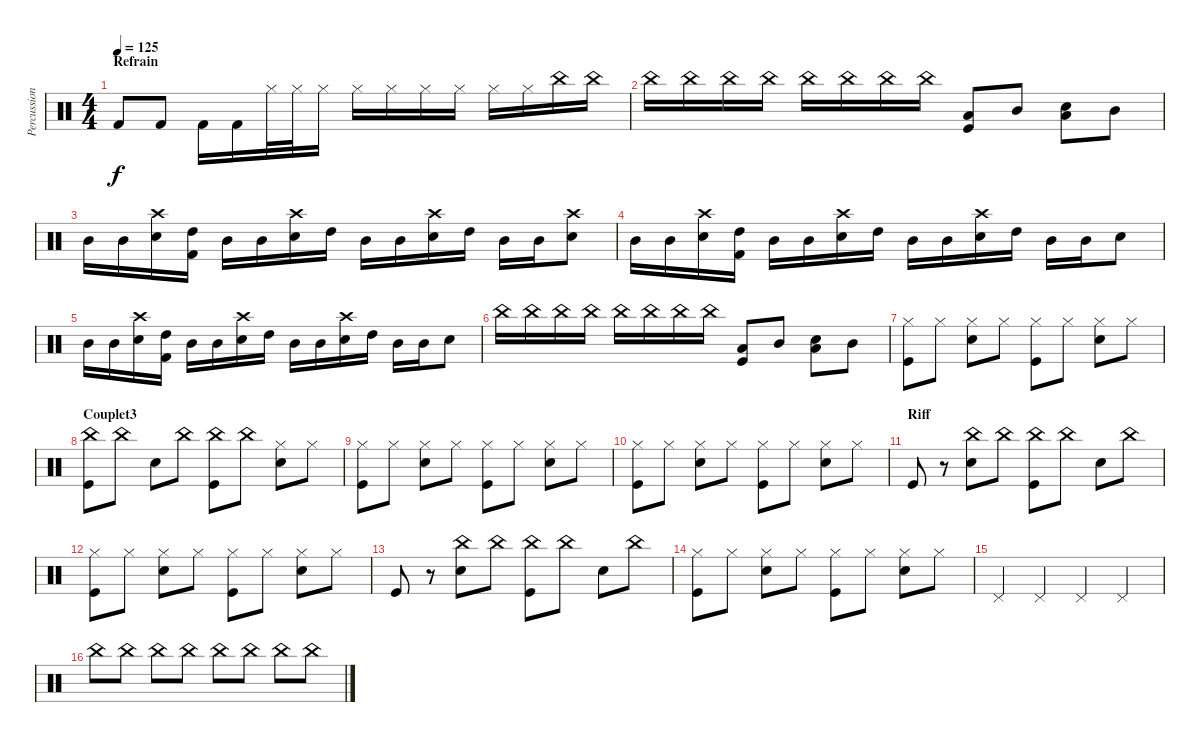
\track ("Percussions" "Percussion") {instrument percussion}
\staff {score}
\articulation defaults
\ts (4 4)
\section ("" "Refrain")
\tempo 125
\clef neutral
\ks c "Kick (hit) 2".8{dy f} "Kick (hit) 2".8 "Kick (hit) 2".16 "Kick (hit) 2".16 "Hi-Hat (closed)".32 "Hi-Hat (closed)".32 "Hi-Hat (closed)".16 "Hi-Hat (closed)".16 "Hi-Hat (closed)".16 "Hi-Hat (closed)".16 "Hi-Hat (closed)".16 "Hi-Hat (closed)".16 "Hi-Hat (closed)".16 "China (hit)".16 "China (hit)".16
|
"China (hit)".16 "China (hit)".16 "China (hit)".16 "China (hit)".16 "China (hit)".16 "China (hit)".16 "China (hit)".16 "China (hit)".16 ("Low Tom (hit)" "Kick (hit)").8 "Mid Tom (hit)".8 ("Low Tom (hit)" "Snare (hit) 2").8 "Mid Tom (hit)".8 |
"Mid Tom (hit)".16 "Mid Tom (hit)".16 ("Crash high (hit)" "Snare (hit) 2").16 ("High Tom (hit)" "Kick (hit) 2").16 "Mid Tom (hit)".16 "Mid Tom (hit)".16 ("Crash high (hit)" "Snare (hit) 2").16 "High Tom (hit)".16 "Mid Tom (hit)".16 "Mid Tom (hit)".16 ("Crash high (hit)" "Snare (hit) 2").16 "High Tom (hit)".16 "Mid Tom (hit)".16 "Mid Tom (hit)".16 ("Crash high (hit)" "Snare (hit) 2").8 |
"Mid Tom (hit)".16 "Mid Tom (hit)".16 ("Crash high (hit)" "Snare (hit) 2").16 ("High Tom (hit)" "Kick (hit) 2").16 "Mid Tom (hit)".16 "Mid Tom (hit)".16 ("Crash high (hit)" "Snare (hit) 2").16 "High Tom (hit)".16 "Mid Tom (hit)".16 "Mid Tom (hit)".16 ("Crash high (hit)" "Snare (hit) 2").16 "High Tom (hit)".16 "Mid Tom (hit)".16 "Mid Tom (hit)".16 "Snare (hit) 2".8 |
"Mid Tom (hit)".16 "Mid Tom (hit)".16 ("Crash high (hit)" "Snare (hit) 2").16 ("High Tom (hit)" "Kick (hit) 2").16 "Mid Tom (hit)".16 "Mid Tom (hit)".16 ("Crash high (hit)" "Snare (hit) 2").16 "High Tom (hit)".16 "Mid Tom (hit)".16 "Mid Tom (hit)".16 ("Crash high (hit)" "Snare (hit) 2").16 "High Tom (hit)".16 "Mid Tom (hit)".16 "Mid Tom (hit)".16 "Snare (hit) 2".8 |
"China (hit)".16 "China (hit)".16 "China (hit)".16 "China (hit)".16 "China (hit)".16 "China (hit)".16 "China (hit)".16 "China (hit)".16 ("Low Tom (hit)" "Kick (hit)").8 "Mid Tom (hit)".8 ("Low Tom (hit)" "Snare (hit) 2").8 "Mid Tom (hit)".8 |
("Hi-Hat (closed)" "Kick (hit)").8 "Hi-Hat (closed)".8 ("Hi-Hat (closed)" "Snare (hit) 2").8 "Hi-Hat (closed)".8 ("Hi-Hat (closed)" "Kick (hit)").8 "Hi-Hat (closed)".8 ("Hi-Hat (closed)" "Snare (hit) 2").8 "Hi-Hat (closed)".8 |
\section ("" "Couplet3")
("China (hit)" "Kick (hit)").8 "China (hit)".8 "Snare (hit) 2".8 "China (hit)".8 ("China (hit)" "Kick (hit)").8 "China (hit)".8 ("Hi-Hat (closed)" "Snare (hit) 2").8 "Hi-Hat (closed)".8 |
("Hi-Hat (closed)" "Kick (hit)").8 "Hi-Hat (closed)".8 ("Hi-Hat (closed)" "Snare (hit) 2").8 "Hi-Hat (closed)".8 ("Hi-Hat (closed)" "Kick (hit)").8 "Hi-Hat (closed)".8 ("Hi-Hat (closed)" "Snare (hit) 2").8 "Hi-Hat (closed)".8 |
("Hi-Hat (closed)" "Kick (hit)").8 "Hi-Hat (closed)".8 ("Hi-Hat (closed)" "Snare (hit) 2").8 "Hi-Hat (closed)".8 ("Hi-Hat (closed)" "Kick (hit)").8 "Hi-Hat (closed)".8 ("Hi-Hat (closed)" "Snare (hit) 2").8 "Hi-Hat (closed)".8 |
\section ("" "Riff")
"Kick (hit)".8 r.8 ("China (hit)" "Snare (hit) 2").8 "China (hit)".8 ("China (hit)" "Kick (hit)").8 "China (hit)".8 "Snare (hit) 2".8 "China (hit)".8 |
("Hi-Hat (closed)" "Kick (hit)").8 "Hi-Hat (closed)".8 ("Hi-Hat (closed)" "Snare (hit) 2").8 "Hi-Hat (closed)".8 ("Hi-Hat (closed)" "Kick (hit)").8 "Hi-Hat (closed)".8 ("Hi-Hat (closed)" "Snare (hit) 2").8 "Hi-Hat (closed)".8 |
"Kick (hit)".8 r.8 ("China (hit)" "Snare (hit) 2").8 "China (hit)".8 ("China (hit)" "Kick (hit)").8 "China (hit)".8 "Snare (hit) 2".8 "China (hit)".8 |
("Hi-Hat (closed)" "Kick (hit)").8 "Hi-Hat (closed)".8 ("Hi-Hat (closed)" "Snare (hit) 2").8 "Hi-Hat (closed)".8 ("Hi-Hat (closed)" "Kick (hit)").8 "Hi-Hat (closed)".8 ("Hi-Hat (closed)" "Snare (hit) 2").8 "Hi-Hat (closed)".8 |
"Pedal Hi-Hat (hit)".4 "Pedal Hi-Hat (hit)".4 "Pedal Hi-Hat (hit)".4 "Pedal Hi-Hat (hit)".4 |
"China (hit)".8 "China (hit)".8 "China (hit)".8 "China (hit)".8 "China (hit)".8 "China (hit)".8 "China (hit)".8 "China (hit)".8
